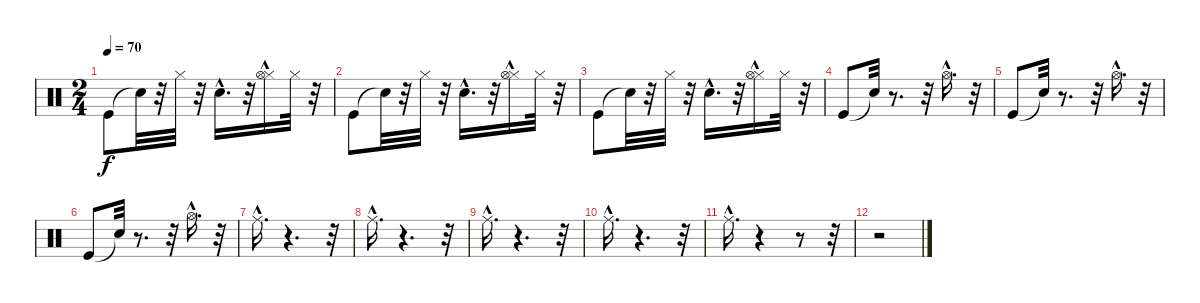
\track "" {instrument percussion}
\staff {score}
\articulation defaults
\ts (2 4)
\tempo 70
\clef neutral
\ks c "Kick (hit)".8{dy f} "Snare (hit)"{t}.32
r.32 "Hi-Hat (closed)".32 r.32 "Electric Snare (hit)"{hac}.16{d} r.32 ("Hi-Hat (closed)" "Hi-Hat (open)"{hac}).16 "Hi-Hat (closed)".32 r.32 |
"Kick (hit)".8 "Snare (hit)"{t}.32 r.32 "Hi-Hat (closed)".32 r.32 "Electric Snare (hit)"{hac}.16{d} r.32 ("Hi-Hat (closed)" "Hi-Hat (open)"{hac}).16 "Hi-Hat (closed)".32 r.32 |
"Kick (hit)".8 "Snare (hit)"{t}.32 r.32 "Hi-Hat (closed)".32 r.32 "Electric Snare (hit)"{hac}.16{d} r.32 ("Hi-Hat (closed)" "Hi-Hat (open)"{hac}).16 "Hi-Hat (closed)".32 r.32 |
"Kick (hit)".8 "Snare (hit)"{t}.32 r.8{d} r.32 "Hi-Hat (open)"{hac}.16{d} r.32 |
"Kick (hit)".8 "Snare (hit)"{t}.32 r.8{d} r.32 "Hi-Hat (open)"{hac}.16{d} r.32 |
"Kick (hit)".8 "Snare (hit)"{t}.32 r.8{d} r.32 "Hi-Hat (open)"{hac}.16{d} r.32 |
"Ride (middle)"{hac}.16{d} r.4{d} r.32 |
"Ride (middle)"{hac}.16{d} r.4{d} r.32 |
"Ride (middle)"{hac}.16{d} r.4{d} r.32 |
"Ride (middle)"{hac}.16{d} r.4{d} r.32 |
"Ride (middle)"{hac}.16{d} r.4 r.8 r.32 |
r.2
